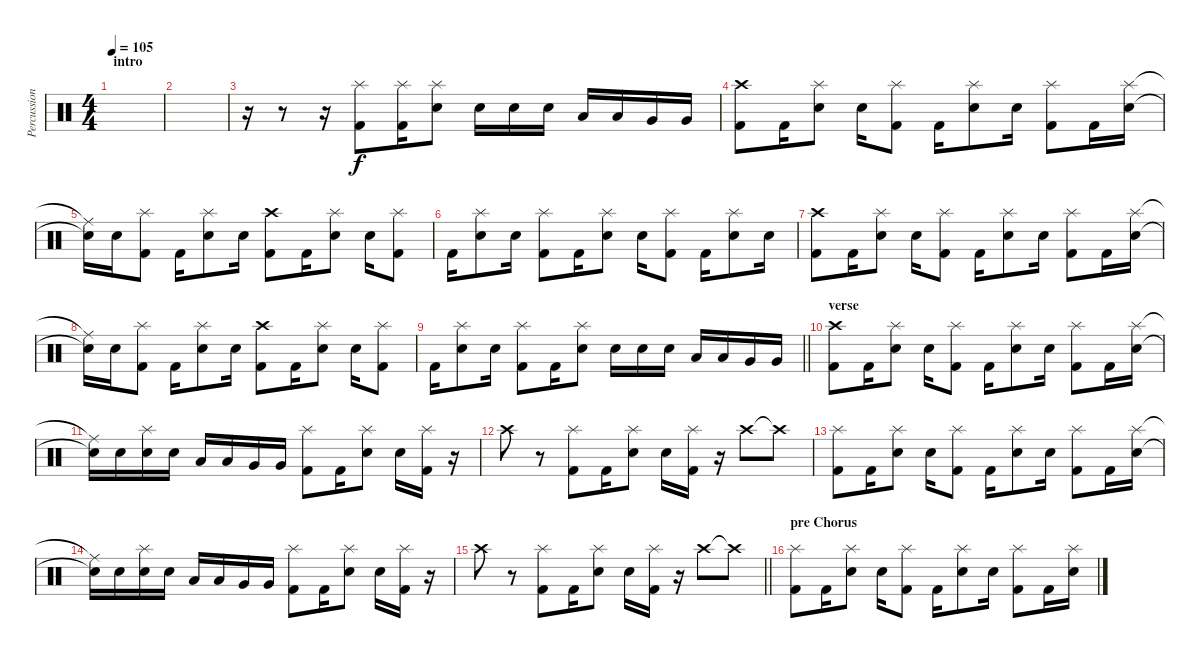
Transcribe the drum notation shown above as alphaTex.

\track ("Percussion" "Percussion") {instrument percussion}
\staff {score}
\articulation defaults
\ts (4 4)
\section ("" "intro")
\tempo 105
\clef neutral
\ks c
|
|
r.16 r.8 r.16 ("Kick (hit) 2" "Splash (hit)").8 ("Kick (hit) 2" "Splash (hit)").16 ("Electric Snare (hit)" "Splash (hit)").8 "Electric Snare (hit)".16 "Electric Snare (hit)".16 "Electric Snare (hit)".16 "Low Floor Tom (hit)".16 "Low Floor Tom (hit)".16 "Very Low Tom (hit)".16 "Very Low Tom (hit)".16 |
("Kick (hit) 2" "Crash high (hit)").8 "Kick (hit) 2".16 ("Electric Snare (hit)" "Splash (hit)").8 "Electric Snare (hit)".16 ("Kick (hit) 2" "Splash (hit)").8 "Kick (hit) 2".16 ("Electric Snare (hit)" "Splash (hit)").8 "Electric Snare (hit)".16 ("Kick (hit) 2" "Splash (hit)").8 "Kick (hit) 2".16 ("Electric Snare (hit)" "Splash (hit)").16 |
("Electric Snare (hit)"{t} "Ride (middle)"{t}).16 "Electric Snare (hit)".16 ("Kick (hit) 2" "Splash (hit)").8 "Kick (hit) 2".16 ("Electric Snare (hit)" "Splash (hit)").8 "Electric Snare (hit)".16 ("Kick (hit) 2" "Crash high (hit)").8 "Kick (hit) 2".16 ("Electric Snare (hit)" "Splash (hit)").8 "Electric Snare (hit)".16 ("Kick (hit) 2" "Splash (hit)").8 |
"Kick (hit) 2".16 ("Electric Snare (hit)" "Splash (hit)").8 "Electric Snare (hit)".16 ("Kick (hit) 2" "Splash (hit)").8 "Kick (hit) 2".16 ("Electric Snare (hit)" "Splash (hit)").8 "Electric Snare (hit)".16 ("Kick (hit) 2" "Splash (hit)").8 "Kick (hit) 2".16 ("Electric Snare (hit)" "Splash (hit)").8 "Electric Snare (hit)".16 |
("Kick (hit) 2" "Crash high (hit)").8 "Kick (hit) 2".16 ("Electric Snare (hit)" "Splash (hit)").8 "Electric Snare (hit)".16 ("Kick (hit) 2" "Splash (hit)").8 "Kick (hit) 2".16 ("Electric Snare (hit)" "Splash (hit)").8 "Electric Snare (hit)".16 ("Kick (hit) 2" "Splash (hit)").8 "Kick (hit) 2".16 ("Electric Snare (hit)" "Splash (hit)").16 |
("Electric Snare (hit)"{t} "Ride (middle)"{t}).16 "Electric Snare (hit)".16 ("Kick (hit) 2" "Splash (hit)").8 "Kick (hit) 2".16 ("Electric Snare (hit)" "Splash (hit)").8 "Electric Snare (hit)".16 ("Kick (hit) 2" "Crash high (hit)").8 "Kick (hit) 2".16 ("Electric Snare (hit)" "Splash (hit)").8 "Electric Snare (hit)".16 ("Kick (hit) 2" "Splash (hit)").8 |
\barLineRight lightlight "Kick (hit) 2".16
("Electric Snare (hit)" "Splash (hit)").8 "Electric Snare (hit)".16 ("Kick (hit) 2" "Splash (hit)").8 "Kick (hit) 2".16 ("Electric Snare (hit)" "Splash (hit)").8 "Electric Snare (hit)".16 "Electric Snare (hit)".16 "Electric Snare (hit)".16 "Low Floor Tom (hit)".16 "Low Floor Tom (hit)".16 "Very Low Tom (hit)".16 "Very Low Tom (hit)".16 |
\section ("" "verse")
("Kick (hit) 2" "Crash high (hit)").8 "Kick (hit) 2".16 ("Electric Snare (hit)" "Splash (hit)").8 "Electric Snare (hit)".16 ("Kick (hit) 2" "Splash (hit)").8 "Kick (hit) 2".16 ("Electric Snare (hit)" "Splash (hit)").8 "Electric Snare (hit)".16 ("Kick (hit) 2" "Splash (hit)").8 "Kick (hit) 2".16 ("Electric Snare (hit)" "Splash (hit)").16 |
("Electric Snare (hit)"{t} "Ride (middle)"{t}).16 "Electric Snare (hit)".16 ("Electric Snare (hit)" "Splash (hit)").16 "Electric Snare (hit)".16 "Low Floor Tom (hit)".16 "Low Floor Tom (hit)".16 "Very Low Tom (hit)".16 "Very Low Tom (hit)".16 ("Kick (hit) 2" "Splash (hit)").8 "Kick (hit) 2".16 ("Electric Snare (hit)" "Splash (hit)").8 "Electric Snare (hit)".16 ("Kick (hit) 2" "Splash (hit)").16 r.16 |
"Crash high (hit)".8 r.8 ("Kick (hit) 2" "Splash (hit)").8 "Kick (hit) 2".16 ("Electric Snare (hit)" "Splash (hit)").8 "Electric Snare (hit)".16 ("Kick (hit) 2" "Splash (hit)").16 r.16 "Crash high (hit)".8 "Crash high (hit)"{t}.8 |
("Kick (hit) 2" "Splash (hit)").8 "Kick (hit) 2".16 ("Electric Snare (hit)" "Splash (hit)").8 "Electric Snare (hit)".16 ("Kick (hit) 2" "Splash (hit)").8 "Kick (hit) 2".16 ("Electric Snare (hit)" "Splash (hit)").8 "Electric Snare (hit)".16 ("Kick (hit) 2" "Splash (hit)").8 "Kick (hit) 2".16 ("Electric Snare (hit)" "Splash (hit)").16 |
("Electric Snare (hit)"{t} "Ride (middle)"{t}).16 "Electric Snare (hit)".16 ("Electric Snare (hit)" "Splash (hit)").16 "Electric Snare (hit)".16 "Low Floor Tom (hit)".16 "Low Floor Tom (hit)".16 "Very Low Tom (hit)".16 "Very Low Tom (hit)".16 ("Kick (hit) 2" "Splash (hit)").8 "Kick (hit) 2".16 ("Electric Snare (hit)" "Splash (hit)").8 "Electric Snare (hit)".16 ("Kick (hit) 2" "Splash (hit)").16 r.16 |
\barLineRight lightlight "Crash high (hit)".8
r.8 ("Kick (hit) 2" "Splash (hit)").8 "Kick (hit) 2".16 ("Electric Snare (hit)" "Splash (hit)").8 "Electric Snare (hit)".16 ("Kick (hit) 2" "Splash (hit)").16 r.16 "Crash high (hit)".8 "Crash high (hit)"{t}.8 |
\section ("" "pre Chorus")
("Kick (hit) 2" "Splash (hit)").8 "Kick (hit) 2".16 ("Electric Snare (hit)" "Splash (hit)").8 "Electric Snare (hit)".16 ("Kick (hit) 2" "Splash (hit)").8 "Kick (hit) 2".16 ("Electric Snare (hit)" "Splash (hit)").8 "Electric Snare (hit)".16 ("Kick (hit) 2" "Splash (hit)").8 "Kick (hit) 2".16 ("Electric Snare (hit)" "Splash (hit)").16
